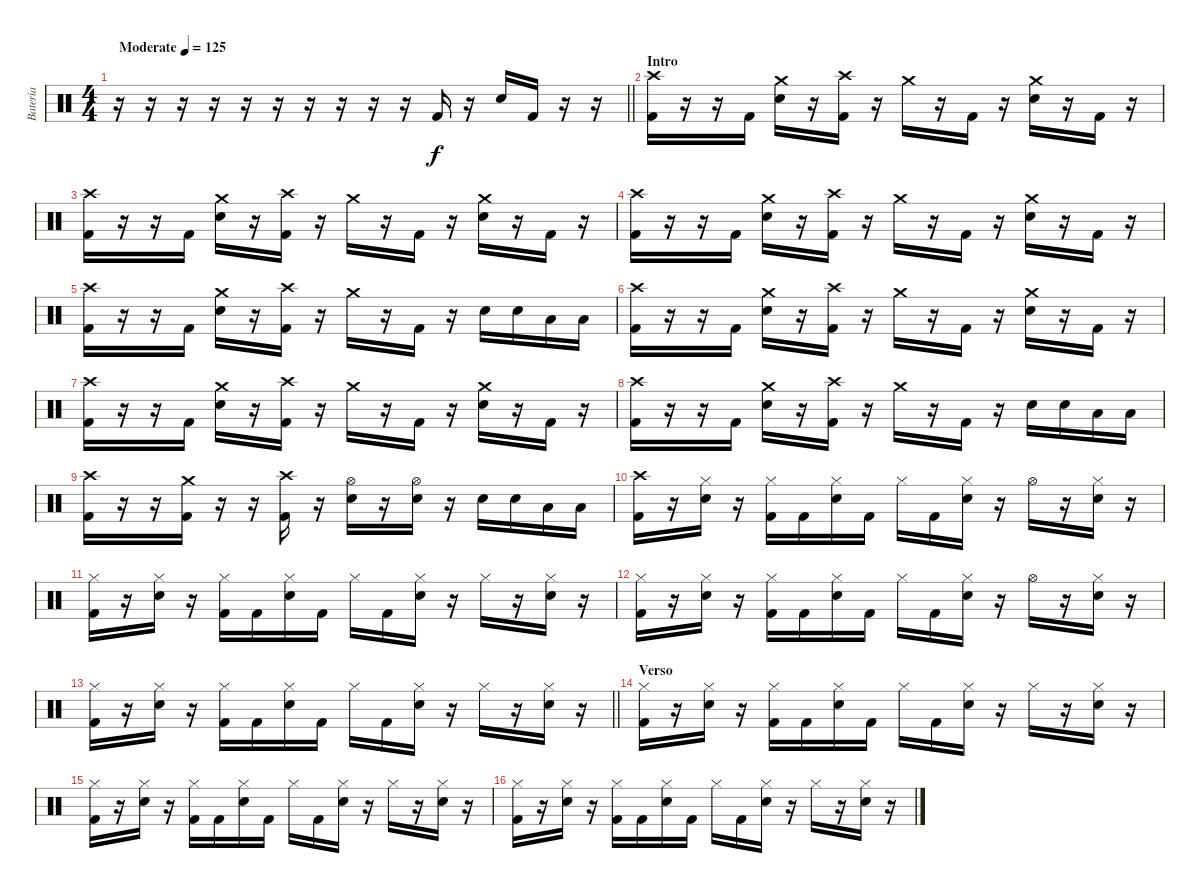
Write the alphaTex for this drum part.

\track ("Bateria" "Bateria") {instrument percussion}
\staff {score}
\articulation defaults
\ts (4 4)
\tempo (125 "Moderate")
\clef neutral
\barLineRight lightlight
\ks c
r.16{dy f} r.16 r.16 r.16 r.16 r.16 r.16 r.16 r.16 r.16 "Kick (hit) 2".16 r.16 "Electric Snare (hit)".16 "Kick (hit) 2".16 r.16 r.16 |
\section ("" "Intro")
("Crash high (hit)" "Kick (hit) 2").16 r.16 r.16 "Kick (hit) 2".16 ("Crash medium (hit)" "Electric Snare (hit)").16 r.16 ("Crash high (hit)" "Kick (hit) 2").16 r.16 "Crash medium (hit)".16 r.16 "Kick (hit) 2".16 r.16 ("Crash medium (hit)" "Electric Snare (hit)").16 r.16 "Kick (hit) 2".16 r.16 |
("Crash high (hit)" "Kick (hit) 2").16 r.16 r.16 "Kick (hit) 2".16 ("Crash medium (hit)" "Electric Snare (hit)").16 r.16 ("Crash high (hit)" "Kick (hit) 2").16 r.16 "Crash medium (hit)".16 r.16 "Kick (hit) 2".16 r.16 ("Crash medium (hit)" "Electric Snare (hit)").16 r.16 "Kick (hit) 2".16 r.16 |
("Crash high (hit)" "Kick (hit) 2").16 r.16 r.16 "Kick (hit) 2".16 ("Crash medium (hit)" "Electric Snare (hit)").16 r.16 ("Crash high (hit)" "Kick (hit) 2").16 r.16 "Crash medium (hit)".16 r.16 "Kick (hit) 2".16 r.16 ("Crash medium (hit)" "Electric Snare (hit)").16 r.16 "Kick (hit) 2".16 r.16 |
("Crash high (hit)" "Kick (hit) 2").16 r.16 r.16 "Kick (hit) 2".16 ("Crash medium (hit)" "Electric Snare (hit)").16 r.16 ("Crash high (hit)" "Kick (hit) 2").16 r.16 "Crash medium (hit)".16 r.16 "Kick (hit) 2".16 r.16 "Electric Snare (hit)".16 "Electric Snare (hit)".16 "Low Tom (hit)".16 "Low Tom (hit)".16 |
("Crash high (hit)" "Kick (hit) 2").16 r.16 r.16 "Kick (hit) 2".16 ("Crash medium (hit)" "Electric Snare (hit)").16 r.16 ("Crash high (hit)" "Kick (hit) 2").16 r.16 "Crash medium (hit)".16 r.16 "Kick (hit) 2".16 r.16 ("Crash medium (hit)" "Electric Snare (hit)").16 r.16 "Kick (hit) 2".16 r.16 |
("Crash high (hit)" "Kick (hit) 2").16 r.16 r.16 "Kick (hit) 2".16 ("Crash medium (hit)" "Electric Snare (hit)").16 r.16 ("Crash high (hit)" "Kick (hit) 2").16 r.16 "Crash medium (hit)".16 r.16 "Kick (hit) 2".16 r.16 ("Crash medium (hit)" "Electric Snare (hit)").16 r.16 "Kick (hit) 2".16 r.16 |
("Crash high (hit)" "Kick (hit) 2").16 r.16 r.16 "Kick (hit) 2".16 ("Crash medium (hit)" "Electric Snare (hit)").16 r.16 ("Crash high (hit)" "Kick (hit) 2").16 r.16 "Crash medium (hit)".16 r.16 "Kick (hit) 2".16 r.16 "Electric Snare (hit)".16 "Electric Snare (hit)".16 "Low Tom (hit)".16 "Low Tom (hit)".16 |
("Crash high (hit)" "Kick (hit) 2").16 r.16 r.16 ("Crash medium (hit)" "Kick (hit) 2").16 r.16 r.16 ("Crash high (hit)" "Kick (hit) 2").16 r.16 ("Hi-Hat (open)" "Electric Snare (hit)").16 r.16 ("Hi-Hat (open)" "Electric Snare (hit)").16 r.16 "Electric Snare (hit)".16 "Electric Snare (hit)".16 "Low Tom (hit)".16 "Low Tom (hit)".16 |
("Crash high (hit)" "Kick (hit) 2").16 r.16 ("Hi-Hat (closed)" "Electric Snare (hit)").16 r.16 ("Hi-Hat (closed)" "Kick (hit) 2").16 "Kick (hit) 2".16 ("Hi-Hat (closed)" "Electric Snare (hit)").16 "Kick (hit) 2".16 "Hi-Hat (closed)".16 "Kick (hit) 2".16 ("Hi-Hat (closed)" "Electric Snare (hit)").16 r.16 "Hi-Hat (open)".16 r.16 ("Hi-Hat (closed)" "Electric Snare (hit)").16 r.16 |
("Hi-Hat (closed)" "Kick (hit) 2").16 r.16 ("Hi-Hat (closed)" "Electric Snare (hit)").16 r.16 ("Hi-Hat (closed)" "Kick (hit) 2").16 "Kick (hit) 2".16 ("Hi-Hat (closed)" "Electric Snare (hit)").16 "Kick (hit) 2".16 "Hi-Hat (closed)".16 "Kick (hit) 2".16 ("Hi-Hat (closed)" "Electric Snare (hit)").16 r.16 "Hi-Hat (closed)".16 r.16 ("Hi-Hat (closed)" "Electric Snare (hit)").16 r.16 |
("Hi-Hat (closed)" "Kick (hit) 2").16 r.16 ("Hi-Hat (closed)" "Electric Snare (hit)").16 r.16 ("Hi-Hat (closed)" "Kick (hit) 2").16 "Kick (hit) 2".16 ("Hi-Hat (closed)" "Electric Snare (hit)").16 "Kick (hit) 2".16 "Hi-Hat (closed)".16 "Kick (hit) 2".16 ("Hi-Hat (closed)" "Electric Snare (hit)").16 r.16 "Hi-Hat (open)".16 r.16 ("Hi-Hat (closed)" "Electric Snare (hit)").16 r.16 |
\barLineRight lightlight
("Hi-Hat (closed)" "Kick (hit) 2").16 r.16 ("Hi-Hat (closed)" "Electric Snare (hit)").16 r.16 ("Hi-Hat (closed)" "Kick (hit) 2").16 "Kick (hit) 2".16 ("Hi-Hat (closed)" "Electric Snare (hit)").16 "Kick (hit) 2".16 "Hi-Hat (closed)".16 "Kick (hit) 2".16 ("Hi-Hat (closed)" "Electric Snare (hit)").16 r.16 "Hi-Hat (closed)".16 r.16 ("Hi-Hat (closed)" "Electric Snare (hit)").16 r.16 |
\section ("" "Verso")
("Hi-Hat (closed)" "Kick (hit) 2").16 r.16 ("Hi-Hat (closed)" "Electric Snare (hit)").16 r.16 ("Hi-Hat (closed)" "Kick (hit) 2").16 "Kick (hit) 2".16 ("Hi-Hat (closed)" "Electric Snare (hit)").16 "Kick (hit) 2".16 "Hi-Hat (closed)".16 "Kick (hit) 2".16 ("Hi-Hat (closed)" "Electric Snare (hit)").16 r.16 "Hi-Hat (closed)".16 r.16 ("Hi-Hat (closed)" "Electric Snare (hit)").16 r.16 |
("Hi-Hat (closed)" "Kick (hit) 2").16 r.16 ("Hi-Hat (closed)" "Electric Snare (hit)").16 r.16 ("Hi-Hat (closed)" "Kick (hit) 2").16 "Kick (hit) 2".16 ("Hi-Hat (closed)" "Electric Snare (hit)").16 "Kick (hit) 2".16 "Hi-Hat (closed)".16 "Kick (hit) 2".16 ("Hi-Hat (closed)" "Electric Snare (hit)").16 r.16 "Hi-Hat (closed)".16 r.16 ("Hi-Hat (closed)" "Electric Snare (hit)").16 r.16 |
("Hi-Hat (closed)" "Kick (hit) 2").16 r.16 ("Hi-Hat (closed)" "Electric Snare (hit)").16 r.16 ("Hi-Hat (closed)" "Kick (hit) 2").16 "Kick (hit) 2".16 ("Hi-Hat (closed)" "Electric Snare (hit)").16 "Kick (hit) 2".16 "Hi-Hat (closed)".16 "Kick (hit) 2".16 ("Hi-Hat (closed)" "Electric Snare (hit)").16 r.16 "Hi-Hat (closed)".16 r.16 ("Hi-Hat (closed)" "Electric Snare (hit)").16 r.16
